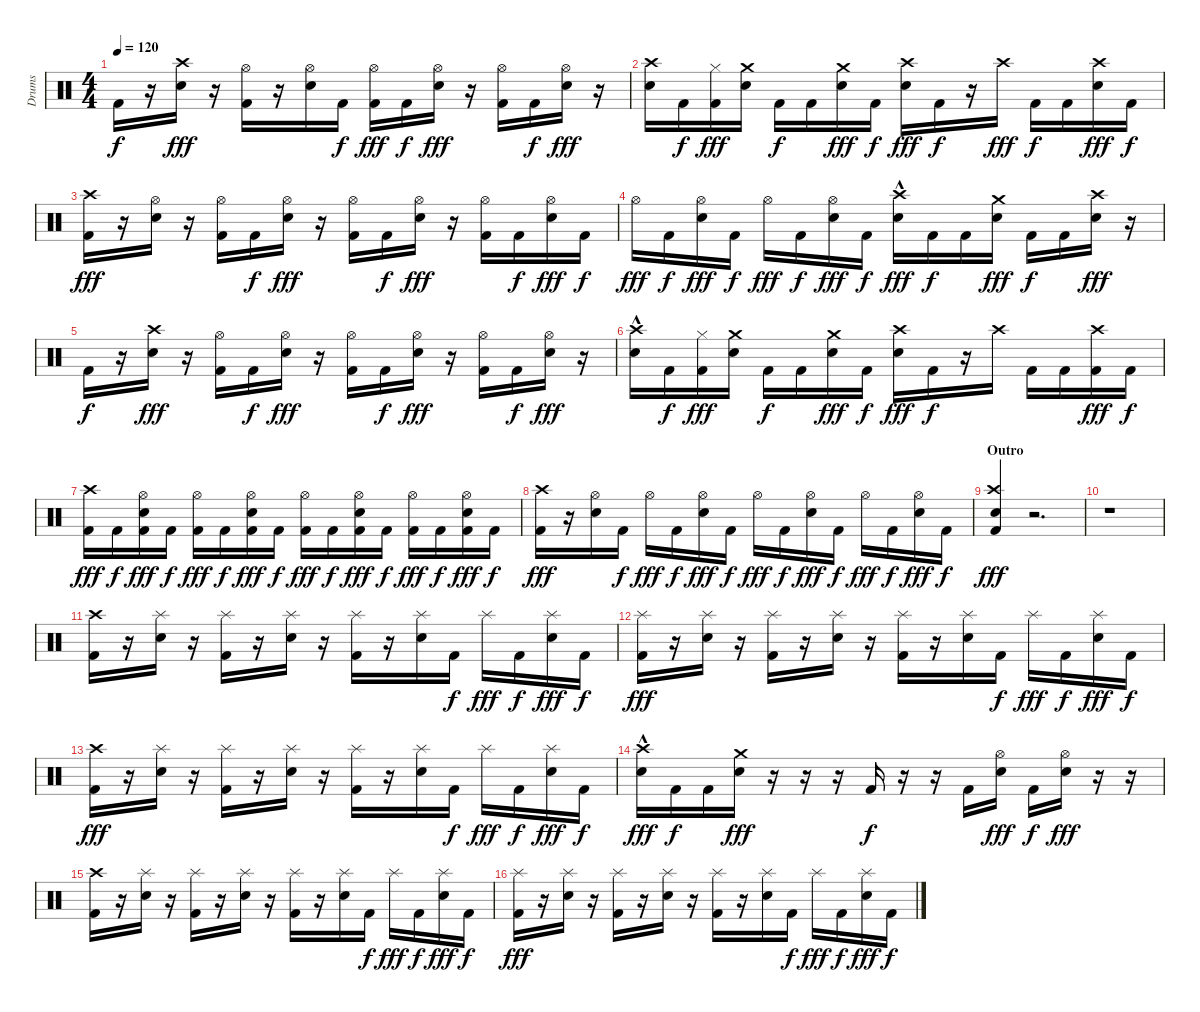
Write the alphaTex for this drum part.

\track ("Drums" "Drums") {instrument percussion}
\staff {score}
\articulation defaults
\ts (4 4)
\tempo 120
\clef neutral
\ks c "Kick (hit) 2".16{dy f}
r.16 ("Crash high (hit)" "Snare (hit) 2").16{dy fff} r.16 ("Hi-Hat (open)" "Kick (hit) 2").16 r.16 ("Hi-Hat (open)" "Snare (hit) 2").16 "Kick (hit) 2".16{dy f} ("Hi-Hat (open)" "Kick (hit) 2").16{dy fff} "Kick (hit) 2".16{dy f} ("Hi-Hat (open)" "Snare (hit) 2").16{dy fff} r.16 ("Hi-Hat (open)" "Kick (hit) 2").16 "Kick (hit) 2".16{dy f} ("Hi-Hat (open)" "Snare (hit) 2").16{dy fff} r.16 |
("Crash high (hit)" "Snare (hit) 2").16 "Kick (hit) 2".16{dy f} ("Hi-Hat (closed)" "Kick (hit) 2").16{dy fff} ("Crash medium (hit)" "Snare (hit) 2").16 "Kick (hit) 2".16{dy f} "Kick (hit) 2".16 ("Crash medium (hit)" "Snare (hit) 2").16{dy fff} "Kick (hit) 2".16{dy f} ("Crash high (hit)" "Snare (hit) 2").16{dy fff} "Kick (hit) 2".16{dy f} r.16 "Crash high (hit)".16{dy fff} "Kick (hit) 2".16{dy f} "Kick (hit) 2".16 ("Crash high (hit)" "Snare (hit) 2").16{dy fff} "Kick (hit) 2".16{dy f} |
("Crash high (hit)" "Kick (hit) 2").16{dy fff} r.16 ("Hi-Hat (open)" "Snare (hit) 2").16 r.16 ("Hi-Hat (open)" "Kick (hit) 2").16 "Kick (hit) 2".16{dy f} ("Hi-Hat (open)" "Snare (hit) 2").16{dy fff} r.16 ("Hi-Hat (open)" "Kick (hit) 2").16 "Kick (hit) 2".16{dy f} ("Hi-Hat (open)" "Snare (hit) 2").16{dy fff} r.16 ("Hi-Hat (open)" "Kick (hit) 2").16 "Kick (hit) 2".16{dy f} ("Hi-Hat (open)" "Snare (hit) 2").16{dy fff} "Kick (hit) 2".16{dy f} |
"Hi-Hat (open)".16{dy fff} "Kick (hit) 2".16{dy f} ("Hi-Hat (open)" "Snare (hit) 2").16{dy fff} "Kick (hit) 2".16{dy f} "Hi-Hat (open)".16{dy fff} "Kick (hit) 2".16{dy f} ("Hi-Hat (open)" "Snare (hit) 2").16{dy fff} "Kick (hit) 2".16{dy f} ("Crash high (hit)"{hac} "Snare (hit) 2").16{dy fff} "Kick (hit) 2".16{dy f} "Kick (hit) 2".16 ("Crash medium (hit)" "Snare (hit) 2").16{dy fff} "Kick (hit) 2".16{dy f} "Kick (hit) 2".16 ("Crash high (hit)" "Snare (hit) 2").16{dy fff} r.16 |
"Kick (hit) 2".16{dy f} r.16 ("Crash high (hit)" "Snare (hit) 2").16{dy fff} r.16 ("Hi-Hat (open)" "Kick (hit) 2").16 "Kick (hit) 2".16{dy f} ("Hi-Hat (open)" "Snare (hit) 2").16{dy fff} r.16 ("Hi-Hat (open)" "Kick (hit) 2").16 "Kick (hit) 2".16{dy f} ("Hi-Hat (open)" "Snare (hit) 2").16{dy fff} r.16 ("Hi-Hat (open)" "Kick (hit) 2").16 "Kick (hit) 2".16{dy f} ("Hi-Hat (open)" "Snare (hit) 2").16{dy fff} r.16 |
("Crash high (hit)"{hac} "Snare (hit) 2").16 "Kick (hit) 2".16{dy f} ("Hi-Hat (closed)" "Kick (hit) 2").16{dy fff} ("Crash medium (hit)" "Snare (hit) 2").16 "Kick (hit) 2".16{dy f} "Kick (hit) 2".16 ("Crash medium (hit)" "Snare (hit) 2").16{dy fff} "Kick (hit) 2".16{dy f} ("Crash high (hit)" "Snare (hit) 2").16{dy fff} "Kick (hit) 2".16{dy f} r.16 "Crash high (hit)".16 "Kick (hit) 2".16 "Kick (hit) 2".16 ("Crash high (hit)" "Kick (hit) 2").16{dy fff} "Kick (hit) 2".16{dy f} |
("Crash high (hit)" "Kick (hit) 2").16{dy fff} "Kick (hit) 2".16{dy f} ("Hi-Hat (open)" "Snare (hit) 2" "Kick (hit) 2").16{dy fff} "Kick (hit) 2".16{dy f} ("Hi-Hat (open)" "Kick (hit) 2").16{dy fff} "Kick (hit) 2".16{dy f} ("Hi-Hat (open)" "Snare (hit) 2" "Kick (hit) 2").16{dy fff} "Kick (hit) 2".16{dy f} ("Hi-Hat (open)" "Kick (hit) 2").16{dy fff} "Kick (hit) 2".16{dy f} ("Hi-Hat (open)" "Snare (hit) 2" "Kick (hit) 2").16{dy fff} "Kick (hit) 2".16{dy f} ("Hi-Hat (open)" "Kick (hit) 2").16{dy fff} "Kick (hit) 2".16{dy f} ("Hi-Hat (open)" "Snare (hit) 2" "Kick (hit) 2").16{dy fff} "Kick (hit) 2".16{dy f} |
("Crash high (hit)" "Kick (hit) 2").16{dy fff} r.16 ("Hi-Hat (open)" "Snare (hit) 2").16 "Kick (hit) 2".16{dy f} "Hi-Hat (open)".16{dy fff} "Kick (hit) 2".16{dy f} ("Hi-Hat (open)" "Snare (hit) 2").16{dy fff} "Kick (hit) 2".16{dy f} "Hi-Hat (open)".16{dy fff} "Kick (hit) 2".16{dy f} ("Hi-Hat (open)" "Snare (hit) 2").16{dy fff} "Kick (hit) 2".16{dy f} "Hi-Hat (open)".16{dy fff} "Kick (hit) 2".16{dy f} ("Hi-Hat (open)" "Snare (hit) 2").16{dy fff} "Kick (hit) 2".16{dy f} |
\section ("" "Outro")
("Crash high (hit)" "Snare (hit) 2" "Kick (hit) 2").4{dy fff} r.2{d} |
r.1 |
("Crash high (hit)" "Kick (hit) 2").16 r.16 ("Splash (hit)" "Snare (hit) 2").16 r.16 ("Splash (hit)" "Kick (hit) 2").16 r.16 ("Splash (hit)" "Snare (hit) 2").16 r.16 ("Splash (hit)" "Kick (hit) 2").16 r.16 ("Splash (hit)" "Snare (hit) 2").16 "Kick (hit) 2".16{dy f} "Splash (hit)".16{dy fff} "Kick (hit) 2".16{dy f} ("Splash (hit)" "Snare (hit) 2").16{dy fff} "Kick (hit) 2".16{dy f} |
("Splash (hit)" "Kick (hit) 2").16{dy fff} r.16 ("Splash (hit)" "Snare (hit) 2").16 r.16 ("Splash (hit)" "Kick (hit) 2").16 r.16 ("Splash (hit)" "Snare (hit) 2").16 r.16 ("Splash (hit)" "Kick (hit) 2").16 r.16 ("Splash (hit)" "Snare (hit) 2").16 "Kick (hit) 2".16{dy f} "Splash (hit)".16{dy fff} "Kick (hit) 2".16{dy f} ("Splash (hit)" "Snare (hit) 2").16{dy fff} "Kick (hit) 2".16{dy f} |
("Crash high (hit)" "Kick (hit) 2").16{dy fff} r.16 ("Splash (hit)" "Snare (hit) 2").16 r.16 ("Splash (hit)" "Kick (hit) 2").16 r.16 ("Splash (hit)" "Snare (hit) 2").16 r.16 ("Splash (hit)" "Kick (hit) 2").16 r.16 ("Splash (hit)" "Snare (hit) 2").16 "Kick (hit) 2".16{dy f} "Splash (hit)".16{dy fff} "Kick (hit) 2".16{dy f} ("Splash (hit)" "Snare (hit) 2").16{dy fff} "Kick (hit) 2".16{dy f} |
("Crash high (hit)"{hac} "Snare (hit) 2").16{dy fff} "Kick (hit) 2".16{dy f} "Kick (hit) 2".16 ("Crash medium (hit)" "Snare (hit) 2").16{dy fff} r.16 r.16 r.16 "Kick (hit) 2".16{dy f} r.16 r.16 "Kick (hit) 2".16 ("Hi-Hat (open)" "Snare (hit) 2").16{dy fff} "Kick (hit) 2".16{dy f} ("Hi-Hat (open)" "Snare (hit) 2").16{dy fff} r.16 r.16 |
("Crash high (hit)" "Kick (hit) 2").16 r.16 ("Splash (hit)" "Snare (hit) 2").16 r.16 ("Splash (hit)" "Kick (hit) 2").16 r.16 ("Splash (hit)" "Snare (hit) 2").16 r.16 ("Splash (hit)" "Kick (hit) 2").16 r.16 ("Splash (hit)" "Snare (hit) 2").16 "Kick (hit) 2".16{dy f} "Splash (hit)".16{dy fff} "Kick (hit) 2".16{dy f} ("Splash (hit)" "Snare (hit) 2").16{dy fff} "Kick (hit) 2".16{dy f} |
("Splash (hit)" "Kick (hit) 2").16{dy fff} r.16 ("Splash (hit)" "Snare (hit) 2").16 r.16 ("Splash (hit)" "Kick (hit) 2").16 r.16 ("Splash (hit)" "Snare (hit) 2").16 r.16 ("Splash (hit)" "Kick (hit) 2").16 r.16 ("Splash (hit)" "Snare (hit) 2").16 "Kick (hit) 2".16{dy f} "Splash (hit)".16{dy fff} "Kick (hit) 2".16{dy f} ("Splash (hit)" "Snare (hit) 2").16{dy fff} "Kick (hit) 2".16{dy f}
